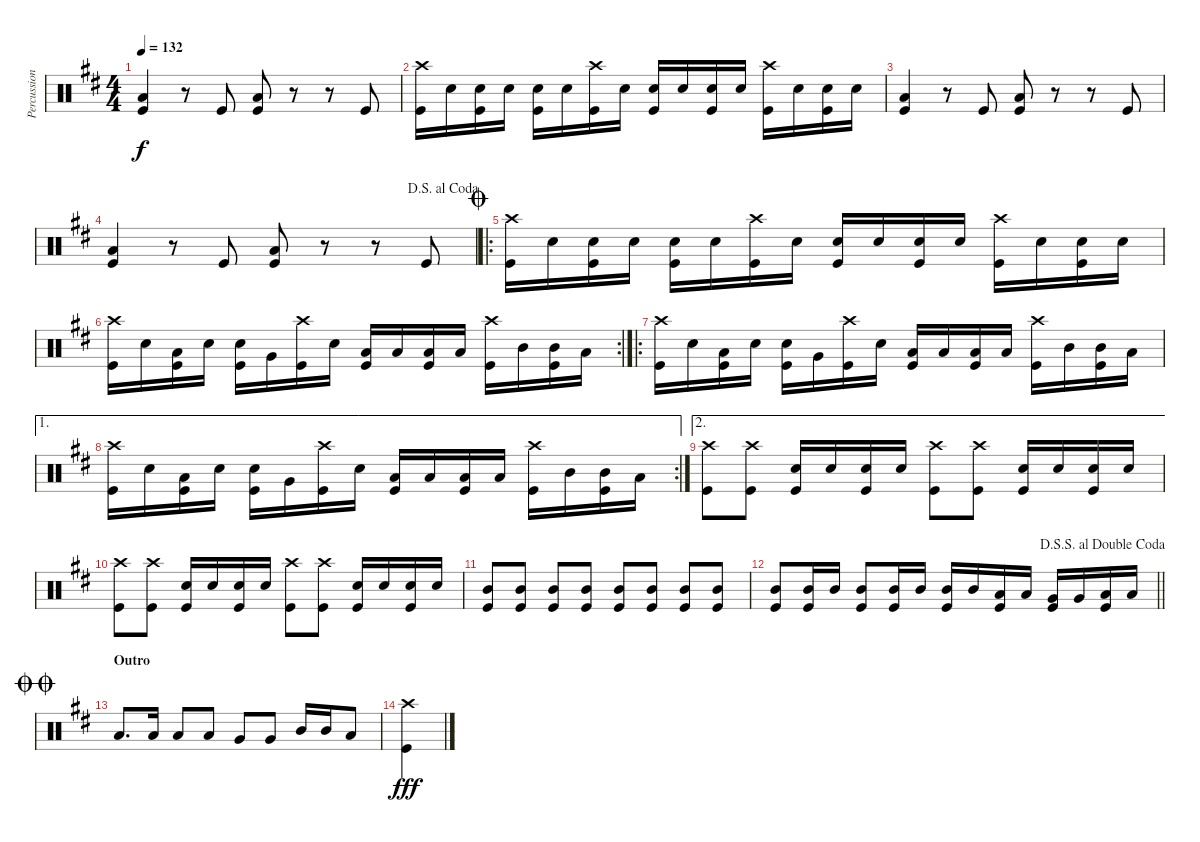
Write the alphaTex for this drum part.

\track ("Percussion" "Percussion") {instrument percussion}
\staff {score}
\articulation defaults
\ts (4 4)
\tempo 132
\clef neutral
\ks d
("Low Floor Tom (hit)" "Kick (hit)").4{dy f} r.8 "Kick (hit)".8 ("Low Floor Tom (hit)" "Kick (hit)").8 r.8 r.8 "Kick (hit)".8 |
("Crash high (hit)" "Kick (hit)").16 "Snare (hit) 2".16 ("Snare (hit) 2" "Kick (hit)").16 "Snare (hit) 2".16 ("Snare (hit) 2" "Kick (hit)").16 "Snare (hit) 2".16 ("Crash high (hit)" "Kick (hit)").16 "Snare (hit) 2".16 ("Snare (hit) 2" "Kick (hit)").16 "Snare (hit) 2".16 ("Snare (hit) 2" "Kick (hit)").16 "Snare (hit) 2".16 ("Crash high (hit)" "Kick (hit)").16 "Snare (hit) 2".16 ("Snare (hit) 2" "Kick (hit)").16 "Snare (hit) 2".16 |
("Low Floor Tom (hit)" "Kick (hit)").4 r.8 "Kick (hit)".8 ("Low Floor Tom (hit)" "Kick (hit)").8 r.8 r.8 "Kick (hit)".8 |
\jump dalsegnoalcoda
("Low Floor Tom (hit)" "Kick (hit)").4 r.8 "Kick (hit)".8 ("Low Floor Tom (hit)" "Kick (hit)").8 r.8 r.8 "Kick (hit)".8 |
\ro
\jump coda
("Crash high (hit)" "Kick (hit)").16 "Snare (hit) 2".16 ("Snare (hit) 2" "Kick (hit)").16 "Snare (hit) 2".16 ("Snare (hit) 2" "Kick (hit)").16 "Snare (hit) 2".16 ("Crash high (hit)" "Kick (hit)").16 "Snare (hit) 2".16 ("Snare (hit) 2" "Kick (hit)").16 "Snare (hit) 2".16 ("Snare (hit) 2" "Kick (hit)").16 "Snare (hit) 2".16 ("Crash high (hit)" "Kick (hit)").16 "Snare (hit) 2".16 ("Snare (hit) 2" "Kick (hit)").16 "Snare (hit) 2".16 |
\rc 2
("Crash high (hit)" "Kick (hit)").16 "Snare (hit) 2".16 ("Low Tom (hit)" "Kick (hit)").16 "Snare (hit) 2".16 ("Snare (hit) 2" "Kick (hit)").16 "Very Low Tom (hit)".16 ("Crash high (hit)" "Kick (hit)").16 "Snare (hit) 2".16 ("Low Tom (hit)" "Kick (hit)").16 "Low Tom (hit)".16 ("Low Floor Tom (hit)" "Kick (hit)").16 "Low Floor Tom (hit)".16 ("Crash high (hit)" "Kick (hit)").16 "Mid Tom (hit)".16 ("Mid Tom (hit)" "Kick (hit)").16 "Low Tom (hit)".16 |
\ro
("Crash high (hit)" "Kick (hit)").16 "Snare (hit) 2".16 ("Low Tom (hit)" "Kick (hit)").16 "Snare (hit) 2".16 ("Snare (hit) 2" "Kick (hit)").16 "Very Low Tom (hit)".16 ("Crash high (hit)" "Kick (hit)").16 "Snare (hit) 2".16 ("Low Tom (hit)" "Kick (hit)").16 "Low Tom (hit)".16 ("Low Floor Tom (hit)" "Kick (hit)").16 "Low Floor Tom (hit)".16 ("Crash high (hit)" "Kick (hit)").16 "Mid Tom (hit)".16 ("Mid Tom (hit)" "Kick (hit)").16 "Low Tom (hit)".16 |
\ae 1
\rc 2
("Crash high (hit)" "Kick (hit)").16 "Snare (hit) 2".16 ("Low Tom (hit)" "Kick (hit)").16 "Snare (hit) 2".16 ("Snare (hit) 2" "Kick (hit)").16 "Very Low Tom (hit)".16 ("Crash high (hit)" "Kick (hit)").16 "Snare (hit) 2".16 ("Low Tom (hit)" "Kick (hit)").16 "Low Tom (hit)".16 ("Low Floor Tom (hit)" "Kick (hit)").16 "Low Floor Tom (hit)".16 ("Crash high (hit)" "Kick (hit)").16 "Mid Tom (hit)".16 ("Mid Tom (hit)" "Kick (hit)").16 "Low Tom (hit)".16 |
\ae 2
("Crash high (hit)" "Kick (hit)").8 ("Crash high (hit)" "Kick (hit)").8 ("Snare (hit) 2" "Kick (hit)").16 "Snare (hit) 2".16 ("Snare (hit) 2" "Kick (hit)").16 "Snare (hit) 2".16 ("Crash high (hit)" "Kick (hit)").8 ("Crash high (hit)" "Kick (hit)").8 ("Snare (hit) 2" "Kick (hit)").16 "Snare (hit) 2".16 ("Snare (hit) 2" "Kick (hit)").16 "Snare (hit) 2".16 |
("Crash high (hit)" "Kick (hit)").8 ("Crash high (hit)" "Kick (hit)").8 ("Snare (hit) 2" "Kick (hit)").16 "Snare (hit) 2".16 ("Snare (hit) 2" "Kick (hit)").16 "Snare (hit) 2".16 ("Crash high (hit)" "Kick (hit)").8 ("Crash high (hit)" "Kick (hit)").8 ("Snare (hit) 2" "Kick (hit)").16 "Snare (hit) 2".16 ("Snare (hit) 2" "Kick (hit)").16 "Snare (hit) 2".16 |
("Mid Tom (hit)" "Kick (hit)").8 ("Mid Tom (hit)" "Kick (hit)").8 ("Mid Tom (hit)" "Kick (hit)").8 ("Mid Tom (hit)" "Kick (hit)").8 ("Mid Tom (hit)" "Kick (hit)").8 ("Mid Tom (hit)" "Kick (hit)").8 ("Mid Tom (hit)" "Kick (hit)").8 ("Mid Tom (hit)" "Kick (hit)").8 |
\jump dalsegnosegnoaldoublecoda
\barLineRight lightlight
("Mid Tom (hit)" "Kick (hit)").8 ("Mid Tom (hit)" "Kick (hit)").16 "Mid Tom (hit)".16 ("Mid Tom (hit)" "Kick (hit)").8 ("Mid Tom (hit)" "Kick (hit)").16 "Mid Tom (hit)".16 ("Mid Tom (hit)" "Kick (hit)").16 "Mid Tom (hit)".16 ("Low Tom (hit)" "Kick (hit)").16 "Low Tom (hit)".16 ("Very Low Tom (hit)" "Kick (hit)").16 "Very Low Tom (hit)".16 ("Low Floor Tom (hit)" "Kick (hit)").16 "Low Floor Tom (hit)".16 |
\section ("" "Outro")
\jump doublecoda "Low Tom (hit)".8{d} "Low Tom (hit)".16 "Low Tom (hit)".8 "Low Tom (hit)".8 "Very Low Tom (hit)".8 "Very Low Tom (hit)".8 "Mid Tom (hit)".16 "Mid Tom (hit)".16 "Low Floor Tom (hit)".8
|
("Crash high (hit)" "Kick (hit)").4{dy fff}
